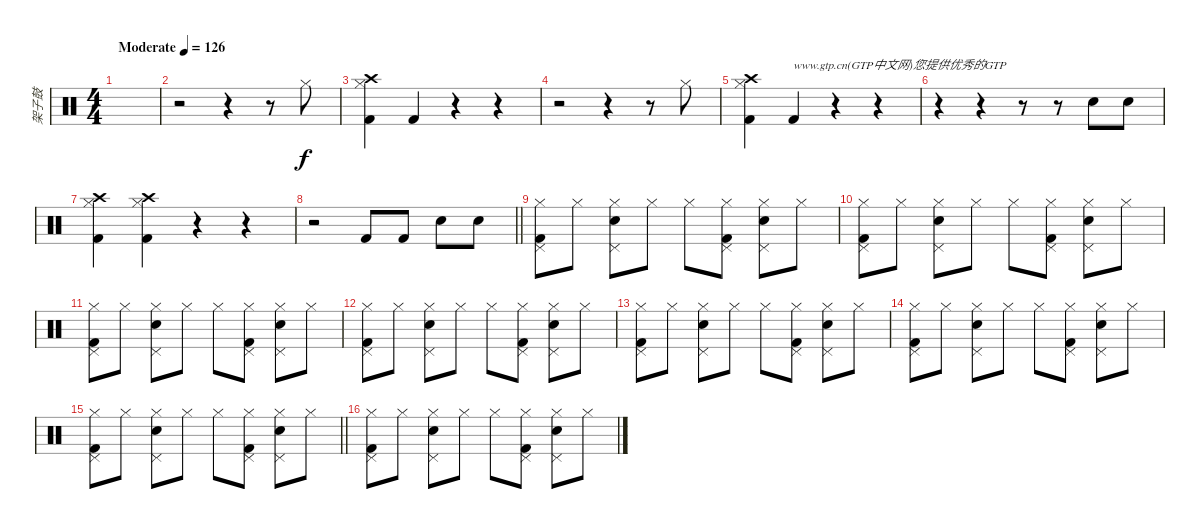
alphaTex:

\track ("架子鼓" "架子鼓") {instrument percussion}
\staff {score}
\articulation defaults
\ts (4 4)
\tempo (126 "Moderate")
\clef neutral
\ks c
|
r.2 r.4 r.8 "Hi-Hat (closed)".8 |
("Crash high (hit)" "Hi-Hat (closed)" "Kick (hit) 2").4 "Kick (hit) 2".4 r.4 r.4 |
r.2 r.4 r.8 "Hi-Hat (closed)".8 |
("Crash high (hit)" "Hi-Hat (closed)" "Kick (hit) 2").4 "Kick (hit) 2".4{txt "www.gtp.cn(GTP中文网)您提供优秀的GTP"} r.4 r.4 |
r.4 r.4 r.8 r.8 "Snare (hit) 2".8 "Snare (hit) 2".8 |
("Crash high (hit)" "Hi-Hat (closed)" "Kick (hit) 2").4 ("Crash high (hit)" "Hi-Hat (closed)" "Kick (hit) 2").4 r.4 r.4 |
\barLineRight lightlight
r.2 "Kick (hit) 2".8 "Kick (hit) 2".8 "Snare (hit) 2".8 "Snare (hit) 2".8 |
("Pedal Hi-Hat (hit)" "Hi-Hat (closed)" "Kick (hit) 2").8 "Hi-Hat (closed)".8 ("Pedal Hi-Hat (hit)" "Hi-Hat (closed)" "Snare (hit) 2").8 "Hi-Hat (closed)".8 "Hi-Hat (closed)".8 ("Pedal Hi-Hat (hit)" "Hi-Hat (closed)" "Kick (hit) 2").8 ("Pedal Hi-Hat (hit)" "Hi-Hat (closed)" "Snare (hit) 2").8 "Hi-Hat (closed)".8 |
("Pedal Hi-Hat (hit)" "Hi-Hat (closed)" "Kick (hit) 2").8 "Hi-Hat (closed)".8 ("Pedal Hi-Hat (hit)" "Hi-Hat (closed)" "Snare (hit) 2").8 "Hi-Hat (closed)".8 "Hi-Hat (closed)".8 ("Pedal Hi-Hat (hit)" "Hi-Hat (closed)" "Kick (hit) 2").8 ("Pedal Hi-Hat (hit)" "Hi-Hat (closed)" "Snare (hit) 2").8 "Hi-Hat (closed)".8 |
("Pedal Hi-Hat (hit)" "Hi-Hat (closed)" "Kick (hit) 2").8 "Hi-Hat (closed)".8 ("Pedal Hi-Hat (hit)" "Hi-Hat (closed)" "Snare (hit) 2").8 "Hi-Hat (closed)".8 "Hi-Hat (closed)".8 ("Pedal Hi-Hat (hit)" "Hi-Hat (closed)" "Kick (hit) 2").8 ("Pedal Hi-Hat (hit)" "Hi-Hat (closed)" "Snare (hit) 2").8 "Hi-Hat (closed)".8 |
("Pedal Hi-Hat (hit)" "Hi-Hat (closed)" "Kick (hit) 2").8 "Hi-Hat (closed)".8 ("Pedal Hi-Hat (hit)" "Hi-Hat (closed)" "Snare (hit) 2").8 "Hi-Hat (closed)".8 "Hi-Hat (closed)".8 ("Pedal Hi-Hat (hit)" "Hi-Hat (closed)" "Kick (hit) 2").8 ("Pedal Hi-Hat (hit)" "Hi-Hat (closed)" "Snare (hit) 2").8 "Hi-Hat (closed)".8 |
("Pedal Hi-Hat (hit)" "Hi-Hat (closed)" "Kick (hit) 2").8 "Hi-Hat (closed)".8 ("Pedal Hi-Hat (hit)" "Hi-Hat (closed)" "Snare (hit) 2").8 "Hi-Hat (closed)".8 "Hi-Hat (closed)".8 ("Pedal Hi-Hat (hit)" "Hi-Hat (closed)" "Kick (hit) 2").8 ("Pedal Hi-Hat (hit)" "Hi-Hat (closed)" "Snare (hit) 2").8 "Hi-Hat (closed)".8 |
("Pedal Hi-Hat (hit)" "Hi-Hat (closed)" "Kick (hit) 2").8 "Hi-Hat (closed)".8 ("Pedal Hi-Hat (hit)" "Hi-Hat (closed)" "Snare (hit) 2").8 "Hi-Hat (closed)".8 "Hi-Hat (closed)".8 ("Pedal Hi-Hat (hit)" "Hi-Hat (closed)" "Kick (hit) 2").8 ("Pedal Hi-Hat (hit)" "Hi-Hat (closed)" "Snare (hit) 2").8 "Hi-Hat (closed)".8 |
\barLineRight lightlight
("Pedal Hi-Hat (hit)" "Hi-Hat (closed)" "Kick (hit) 2").8 "Hi-Hat (closed)".8 ("Pedal Hi-Hat (hit)" "Hi-Hat (closed)" "Snare (hit) 2").8 "Hi-Hat (closed)".8 "Hi-Hat (closed)".8 ("Pedal Hi-Hat (hit)" "Hi-Hat (closed)" "Kick (hit) 2").8 ("Pedal Hi-Hat (hit)" "Hi-Hat (closed)" "Snare (hit) 2").8 "Hi-Hat (closed)".8 |
\section ("" "")
("Pedal Hi-Hat (hit)" "Hi-Hat (closed)" "Kick (hit) 2").8 "Hi-Hat (closed)".8 ("Pedal Hi-Hat (hit)" "Hi-Hat (closed)" "Snare (hit) 2").8 "Hi-Hat (closed)".8 "Hi-Hat (closed)".8 ("Pedal Hi-Hat (hit)" "Hi-Hat (closed)" "Kick (hit) 2").8 ("Pedal Hi-Hat (hit)" "Hi-Hat (closed)" "Snare (hit) 2").8 "Hi-Hat (closed)".8
